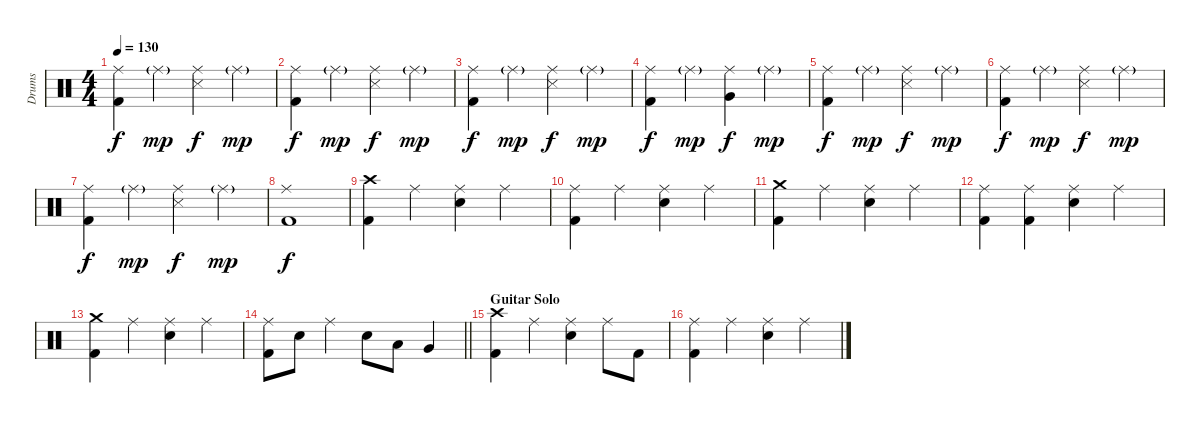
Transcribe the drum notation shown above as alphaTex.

\track ("Drums" "Drums") {instrument percussion}
\staff {score}
\articulation defaults
\ts (4 4)
\tempo 130
\clef neutral
\ks c
("Ride (middle)" "Kick (hit) 2").4{dy f} "Ride (middle)"{g}.4{dy mp} ("Ride (middle)" "Snare (side stick) 3").4{dy f} "Ride (middle)"{g}.4{dy mp} |
("Ride (middle)" "Kick (hit) 2").4{dy f} "Ride (middle)"{g}.4{dy mp} ("Ride (middle)" "Snare (side stick) 3").4{dy f} "Ride (middle)"{g}.4{dy mp} |
("Ride (middle)" "Kick (hit) 2").4{dy f} "Ride (middle)"{g}.4{dy mp} ("Ride (middle)" "Snare (side stick) 3").4{dy f} "Ride (middle)"{g}.4{dy mp} |
("Ride (middle)" "Kick (hit) 2").4{dy f} "Ride (middle)"{g}.4{dy mp} ("Ride (middle)" "Very Low Tom (hit)").4{dy f} "Ride (middle)"{g}.4{dy mp} |
("Ride (middle)" "Kick (hit) 2").4{dy f} "Ride (middle)"{g}.4{dy mp} ("Ride (middle)" "Snare (side stick) 3").4{dy f} "Ride (middle)"{g}.4{dy mp} |
("Ride (middle)" "Kick (hit) 2").4{dy f} "Ride (middle)"{g}.4{dy mp} ("Ride (middle)" "Snare (side stick) 3").4{dy f} "Ride (middle)"{g}.4{dy mp} |
("Ride (middle)" "Kick (hit) 2").4{dy f} "Ride (middle)"{g}.4{dy mp} ("Ride (middle)" "Snare (side stick) 3").4{dy f} "Ride (middle)"{g}.4{dy mp} |
("Ride (middle)" "Kick (hit) 2").1{dy f} |
("Crash high (hit)" "Kick (hit) 2").4 "Ride (middle)".4 ("Ride (middle)" "Electric Snare (hit)").4 "Ride (middle)".4 |
("Ride (middle)" "Kick (hit) 2").4 "Ride (middle)".4 ("Ride (middle)" "Electric Snare (hit)").4 "Ride (middle)".4 |
("Crash medium (hit)" "Kick (hit) 2").4 "Ride (middle)".4 ("Ride (middle)" "Electric Snare (hit)").4 "Ride (middle)".4 |
("Ride (middle)" "Kick (hit) 2").4 ("Ride (middle)" "Kick (hit) 2").4 ("Ride (middle)" "Electric Snare (hit)").4 "Ride (middle)".4 |
("Crash medium (hit)" "Kick (hit) 2").4 "Ride (middle)".4 ("Ride (middle)" "Electric Snare (hit)").4 "Ride (middle)".4 |
\barLineRight lightlight
("Ride (middle)" "Kick (hit) 2").8 "Electric Snare (hit)".8 "Ride (middle)".4 "Electric Snare (hit)".8 "Low Tom (hit)".8 "Very Low Tom (hit)".4 |
\section ("" "Guitar Solo")
("Crash high (hit)" "Kick (hit) 2").4 "Ride (middle)".4 ("Ride (middle)" "Electric Snare (hit)").4 "Ride (middle)".8 "Kick (hit) 2".8 |
("Ride (middle)" "Kick (hit) 2").4 "Ride (middle)".4 ("Ride (middle)" "Electric Snare (hit)").4 "Ride (middle)".4
